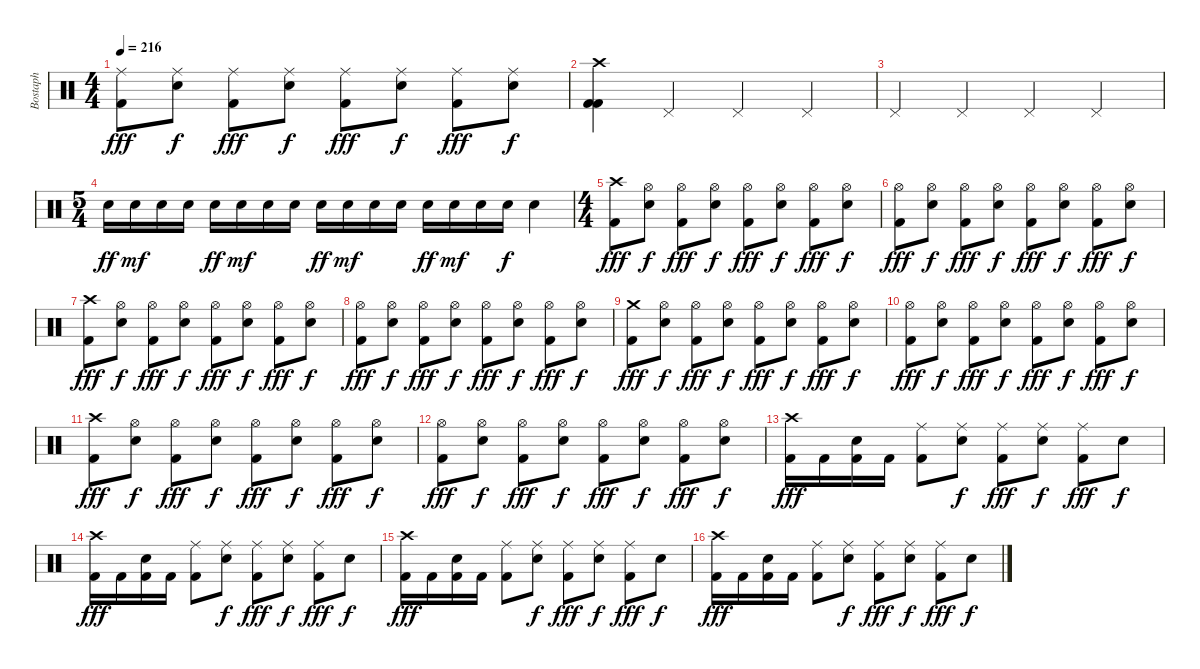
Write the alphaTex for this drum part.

\track ("Bostaph" "Bostaph") {instrument percussion}
\staff {score}
\articulation defaults
\ts (4 4)
\tempo 216
\clef neutral
\ks c
("Ride (middle)" "Kick (hit) 2").8{dy fff} ("Ride (middle)" "Electric Snare (hit)").8{dy f} ("Ride (middle)" "Kick (hit) 2").8{dy fff} ("Ride (middle)" "Electric Snare (hit)").8{dy f} ("Ride (middle)" "Kick (hit) 2").8{dy fff} ("Ride (middle)" "Electric Snare (hit)").8{dy f} ("Ride (middle)" "Kick (hit) 2").8{dy fff} ("Ride (middle)" "Electric Snare (hit)").8{dy f} |
("Crash high (hit)" "Kick (hit) 2" "Kick (hit) 2").4 "Pedal Hi-Hat (hit)".4 "Pedal Hi-Hat (hit)".4 "Pedal Hi-Hat (hit)".4 |
"Pedal Hi-Hat (hit)".4 "Pedal Hi-Hat (hit)".4 "Pedal Hi-Hat (hit)".4 "Pedal Hi-Hat (hit)".4 |
\ts (5 4)
"Electric Snare (hit)".16{dy ff} "Electric Snare (hit)".16{dy mf} "Electric Snare (hit)".16 "Electric Snare (hit)".16 "Electric Snare (hit)".16{dy ff} "Electric Snare (hit)".16{dy mf} "Electric Snare (hit)".16 "Electric Snare (hit)".16 "Electric Snare (hit)".16{dy ff} "Electric Snare (hit)".16{dy mf} "Electric Snare (hit)".16 "Electric Snare (hit)".16 "Electric Snare (hit)".16{dy ff} "Electric Snare (hit)".16{dy mf} "Electric Snare (hit)".16 "Electric Snare (hit)".16{dy f} "Electric Snare (hit)".4 |
\ts (4 4)
("Crash high (hit)" "Kick (hit) 2").8{dy fff} ("Hi-Hat (open)" "Electric Snare (hit)").8{dy f} ("Hi-Hat (open)" "Kick (hit) 2").8{dy fff} ("Hi-Hat (open)" "Electric Snare (hit)").8{dy f} ("Hi-Hat (open)" "Kick (hit) 2").8{dy fff} ("Hi-Hat (open)" "Electric Snare (hit)").8{dy f} ("Hi-Hat (open)" "Kick (hit) 2").8{dy fff} ("Hi-Hat (open)" "Electric Snare (hit)").8{dy f} |
("Hi-Hat (open)" "Kick (hit) 2").8{dy fff} ("Hi-Hat (open)" "Electric Snare (hit)").8{dy f} ("Hi-Hat (open)" "Kick (hit) 2").8{dy fff} ("Hi-Hat (open)" "Electric Snare (hit)").8{dy f} ("Hi-Hat (open)" "Kick (hit) 2").8{dy fff} ("Hi-Hat (open)" "Electric Snare (hit)").8{dy f} ("Hi-Hat (open)" "Kick (hit) 2").8{dy fff} ("Hi-Hat (open)" "Electric Snare (hit)").8{dy f} |
("Crash high (hit)" "Kick (hit) 2").8{dy fff} ("Hi-Hat (open)" "Electric Snare (hit)").8{dy f} ("Hi-Hat (open)" "Kick (hit) 2").8{dy fff} ("Hi-Hat (open)" "Electric Snare (hit)").8{dy f} ("Hi-Hat (open)" "Kick (hit) 2").8{dy fff} ("Hi-Hat (open)" "Electric Snare (hit)").8{dy f} ("Hi-Hat (open)" "Kick (hit) 2").8{dy fff} ("Hi-Hat (open)" "Electric Snare (hit)").8{dy f} |
("Hi-Hat (open)" "Kick (hit) 2").8{dy fff} ("Hi-Hat (open)" "Electric Snare (hit)").8{dy f} ("Hi-Hat (open)" "Kick (hit) 2").8{dy fff} ("Hi-Hat (open)" "Electric Snare (hit)").8{dy f} ("Hi-Hat (open)" "Kick (hit) 2").8{dy fff} ("Hi-Hat (open)" "Electric Snare (hit)").8{dy f} ("Hi-Hat (open)" "Kick (hit) 2").8{dy fff} ("Hi-Hat (open)" "Electric Snare (hit)").8{dy f} |
("Crash medium (hit)" "Kick (hit) 2").8{dy fff} ("Hi-Hat (open)" "Electric Snare (hit)").8{dy f} ("Hi-Hat (open)" "Kick (hit) 2").8{dy fff} ("Hi-Hat (open)" "Electric Snare (hit)").8{dy f} ("Hi-Hat (open)" "Kick (hit) 2").8{dy fff} ("Hi-Hat (open)" "Electric Snare (hit)").8{dy f} ("Hi-Hat (open)" "Kick (hit) 2").8{dy fff} ("Hi-Hat (open)" "Electric Snare (hit)").8{dy f} |
("Hi-Hat (open)" "Kick (hit) 2").8{dy fff} ("Hi-Hat (open)" "Electric Snare (hit)").8{dy f} ("Hi-Hat (open)" "Kick (hit) 2").8{dy fff} ("Hi-Hat (open)" "Electric Snare (hit)").8{dy f} ("Hi-Hat (open)" "Kick (hit) 2").8{dy fff} ("Hi-Hat (open)" "Electric Snare (hit)").8{dy f} ("Hi-Hat (open)" "Kick (hit) 2").8{dy fff} ("Hi-Hat (open)" "Electric Snare (hit)").8{dy f} |
("Crash high (hit)" "Kick (hit) 2").8{dy fff} ("Hi-Hat (open)" "Electric Snare (hit)").8{dy f} ("Hi-Hat (open)" "Kick (hit) 2").8{dy fff} ("Hi-Hat (open)" "Electric Snare (hit)").8{dy f} ("Hi-Hat (open)" "Kick (hit) 2").8{dy fff} ("Hi-Hat (open)" "Electric Snare (hit)").8{dy f} ("Hi-Hat (open)" "Kick (hit) 2").8{dy fff} ("Hi-Hat (open)" "Electric Snare (hit)").8{dy f} |
("Hi-Hat (open)" "Kick (hit) 2").8{dy fff} ("Hi-Hat (open)" "Electric Snare (hit)").8{dy f} ("Hi-Hat (open)" "Kick (hit) 2").8{dy fff} ("Hi-Hat (open)" "Electric Snare (hit)").8{dy f} ("Hi-Hat (open)" "Kick (hit) 2").8{dy fff} ("Hi-Hat (open)" "Electric Snare (hit)").8{dy f} ("Hi-Hat (open)" "Kick (hit) 2").8{dy fff} ("Hi-Hat (open)" "Electric Snare (hit)").8{dy f} |
("Crash high (hit)" "Kick (hit) 2").16{dy fff} "Kick (hit) 2".16 ("Electric Snare (hit)" "Kick (hit) 2").16 "Kick (hit) 2".16 ("Ride (middle)" "Kick (hit) 2").8 ("Ride (middle)" "Electric Snare (hit)").8{dy f} ("Ride (middle)" "Kick (hit) 2").8{dy fff} ("Ride (middle)" "Electric Snare (hit)").8{dy f} ("Ride (middle)" "Kick (hit) 2").8{dy fff} "Electric Snare (hit)".8{dy f} |
("Crash high (hit)" "Kick (hit) 2").16{dy fff} "Kick (hit) 2".16 ("Electric Snare (hit)" "Kick (hit) 2").16 "Kick (hit) 2".16 ("Ride (middle)" "Kick (hit) 2").8 ("Ride (middle)" "Electric Snare (hit)").8{dy f} ("Ride (middle)" "Kick (hit) 2").8{dy fff} ("Ride (middle)" "Electric Snare (hit)").8{dy f} ("Ride (middle)" "Kick (hit) 2").8{dy fff} "Electric Snare (hit)".8{dy f} |
("Crash high (hit)" "Kick (hit) 2").16{dy fff} "Kick (hit) 2".16 ("Electric Snare (hit)" "Kick (hit) 2").16 "Kick (hit) 2".16 ("Ride (middle)" "Kick (hit) 2").8 ("Ride (middle)" "Electric Snare (hit)").8{dy f} ("Ride (middle)" "Kick (hit) 2").8{dy fff} ("Ride (middle)" "Electric Snare (hit)").8{dy f} ("Ride (middle)" "Kick (hit) 2").8{dy fff} "Electric Snare (hit)".8{dy f} |
("Crash high (hit)" "Kick (hit) 2").16{dy fff} "Kick (hit) 2".16 ("Electric Snare (hit)" "Kick (hit) 2").16 "Kick (hit) 2".16 ("Ride (middle)" "Kick (hit) 2").8 ("Ride (middle)" "Electric Snare (hit)").8{dy f} ("Ride (middle)" "Kick (hit) 2").8{dy fff} ("Ride (middle)" "Electric Snare (hit)").8{dy f} ("Ride (middle)" "Kick (hit) 2").8{dy fff} "Electric Snare (hit)".8{dy f}
